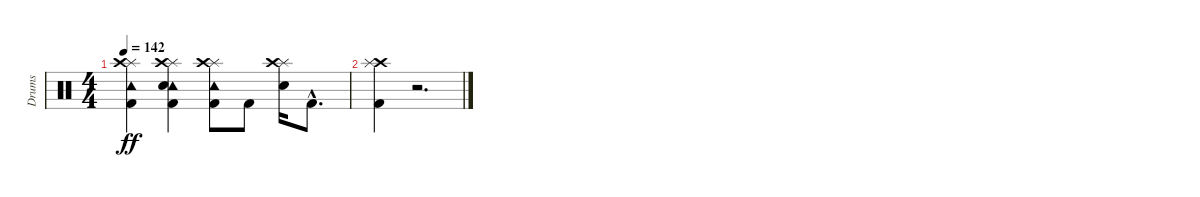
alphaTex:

\track ("Drums" "Drums") {instrument percussion}
\staff {score}
\articulation defaults
\ts (4 4)
\tempo 142
\clef neutral
\ks c
("Splash (hit)" "Crash high (hit)" "Tambourine (hit)" "Kick (hit) 2").4{dy ff} ("Splash (hit)" "Crash high (hit)" "Tambourine (hit)" "Snare (hit) 2" "Kick (hit) 2").4 ("Splash (hit)" "Crash high (hit)" "Tambourine (hit)" "Kick (hit) 2").8 "Kick (hit) 2".8 ("Splash (hit)" "Crash high (hit)" "Snare (hit) 2").16 "Kick (hit) 2"{hac}.8{d} |
("Crash high (hit)" "Splash (hit)" "Kick (hit) 2").4 r.2{d}
